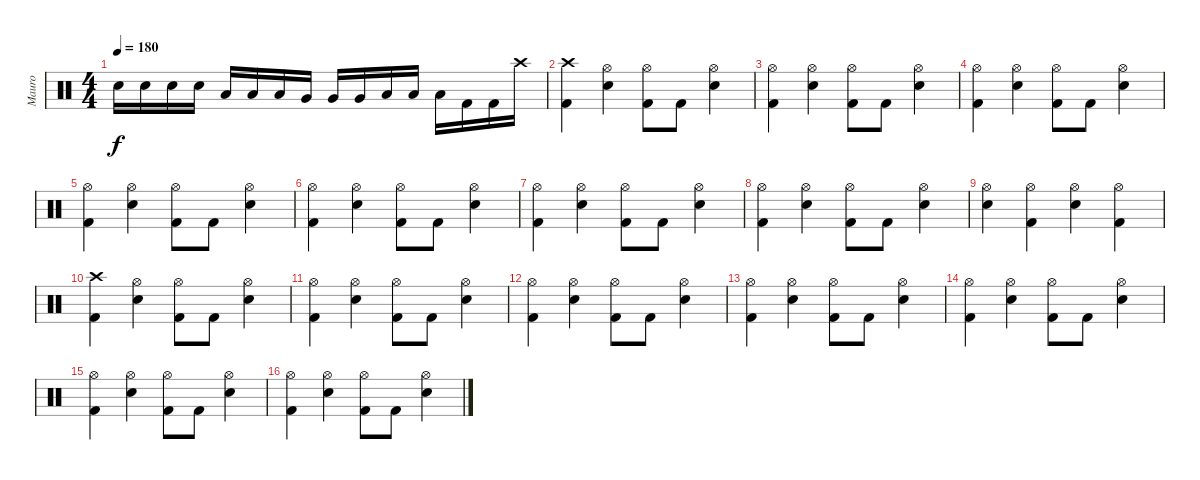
\track ("Mauro" "Mauro") {instrument percussion}
\staff {score}
\articulation defaults
\ts (4 4)
\tempo 180
\clef neutral
\ks c "Snare (hit) 2".16{dy f} "Snare (hit) 2".16 "Snare (hit) 2".16 "Snare (hit) 2".16 "Low Tom (hit)".16 "Low Tom (hit)".16 "Low Tom (hit)".16 "Very Low Tom (hit)".16 "Very Low Tom (hit)".16 "Very Low Tom (hit)".16 "Low Floor Tom (hit)".16 "Low Floor Tom (hit)".16 "Low Floor Tom (hit)".16 "Kick (hit) 2".16 "Kick (hit) 2".16 "Crash high (hit)".16
|
("Crash high (hit)" "Kick (hit) 2").4 ("Hi-Hat (open)" "Snare (hit) 2").4 ("Hi-Hat (open)" "Kick (hit) 2").8 "Kick (hit) 2".8 ("Hi-Hat (open)" "Snare (hit) 2").4 |
("Hi-Hat (open)" "Kick (hit) 2").4 ("Hi-Hat (open)" "Snare (hit) 2").4 ("Hi-Hat (open)" "Kick (hit) 2").8 "Kick (hit) 2".8 ("Hi-Hat (open)" "Snare (hit) 2").4 |
("Hi-Hat (open)" "Kick (hit) 2").4 ("Hi-Hat (open)" "Snare (hit) 2").4 ("Hi-Hat (open)" "Kick (hit) 2").8 "Kick (hit) 2".8 ("Hi-Hat (open)" "Snare (hit) 2").4 |
("Hi-Hat (open)" "Kick (hit) 2").4 ("Hi-Hat (open)" "Snare (hit) 2").4 ("Hi-Hat (open)" "Kick (hit) 2").8 "Kick (hit) 2".8 ("Hi-Hat (open)" "Snare (hit) 2").4 |
("Hi-Hat (open)" "Kick (hit) 2").4 ("Hi-Hat (open)" "Snare (hit) 2").4 ("Hi-Hat (open)" "Kick (hit) 2").8 "Kick (hit) 2".8 ("Hi-Hat (open)" "Snare (hit) 2").4 |
("Hi-Hat (open)" "Kick (hit) 2").4 ("Hi-Hat (open)" "Snare (hit) 2").4 ("Hi-Hat (open)" "Kick (hit) 2").8 "Kick (hit) 2".8 ("Hi-Hat (open)" "Snare (hit) 2").4 |
("Hi-Hat (open)" "Kick (hit) 2").4 ("Hi-Hat (open)" "Snare (hit) 2").4 ("Hi-Hat (open)" "Kick (hit) 2").8 "Kick (hit) 2".8 ("Hi-Hat (open)" "Snare (hit) 2").4 |
("Hi-Hat (open)" "Snare (hit) 2").4 ("Hi-Hat (open)" "Kick (hit) 2").4 ("Hi-Hat (open)" "Snare (hit) 2").4 ("Hi-Hat (open)" "Kick (hit) 2").4 |
("Crash high (hit)" "Kick (hit) 2").4 ("Hi-Hat (open)" "Snare (hit) 2").4 ("Hi-Hat (open)" "Kick (hit) 2").8 "Kick (hit) 2".8 ("Hi-Hat (open)" "Snare (hit) 2").4 |
("Hi-Hat (open)" "Kick (hit) 2").4 ("Hi-Hat (open)" "Snare (hit) 2").4 ("Hi-Hat (open)" "Kick (hit) 2").8 "Kick (hit) 2".8 ("Hi-Hat (open)" "Snare (hit) 2").4 |
("Hi-Hat (open)" "Kick (hit) 2").4 ("Hi-Hat (open)" "Snare (hit) 2").4 ("Hi-Hat (open)" "Kick (hit) 2").8 "Kick (hit) 2".8 ("Hi-Hat (open)" "Snare (hit) 2").4 |
("Hi-Hat (open)" "Kick (hit) 2").4 ("Hi-Hat (open)" "Snare (hit) 2").4 ("Hi-Hat (open)" "Kick (hit) 2").8 "Kick (hit) 2".8 ("Hi-Hat (open)" "Snare (hit) 2").4 |
("Hi-Hat (open)" "Kick (hit) 2").4 ("Hi-Hat (open)" "Snare (hit) 2").4 ("Hi-Hat (open)" "Kick (hit) 2").8 "Kick (hit) 2".8 ("Hi-Hat (open)" "Snare (hit) 2").4 |
("Hi-Hat (open)" "Kick (hit) 2").4 ("Hi-Hat (open)" "Snare (hit) 2").4 ("Hi-Hat (open)" "Kick (hit) 2").8 "Kick (hit) 2".8 ("Hi-Hat (open)" "Snare (hit) 2").4 |
("Hi-Hat (open)" "Kick (hit) 2").4 ("Hi-Hat (open)" "Snare (hit) 2").4 ("Hi-Hat (open)" "Kick (hit) 2").8 "Kick (hit) 2".8 ("Hi-Hat (open)" "Snare (hit) 2").4
